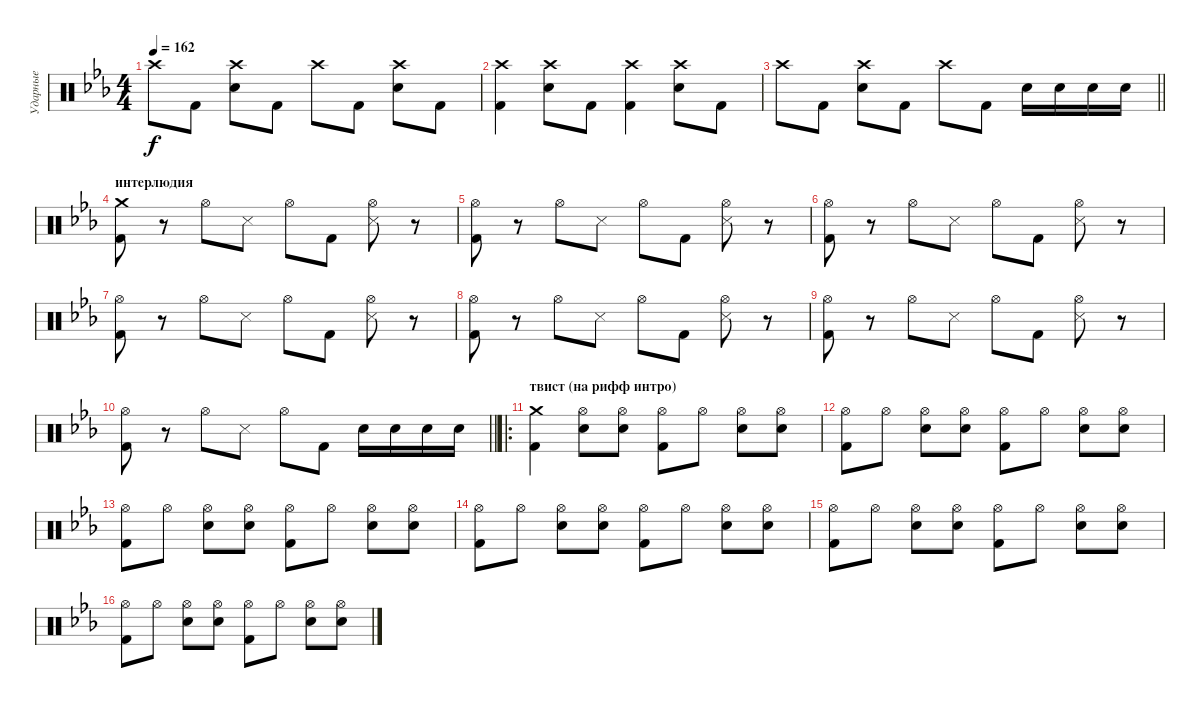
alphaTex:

\track ("Ударные" "Ударные") {instrument percussion}
\staff {score}
\articulation defaults
\ts (4 4)
\tempo 162
\clef neutral
\ks cminor "Crash high (hit)".8{dy f} "Kick (hit) 2".8
("Crash high (hit)" "Snare (hit) 2").8 "Kick (hit) 2".8 "Crash high (hit)".8 "Kick (hit) 2".8 ("Crash high (hit)" "Snare (hit) 2").8 "Kick (hit) 2".8 |
("Crash high (hit)" "Kick (hit) 2").4 ("Crash high (hit)" "Snare (hit) 2").8 "Kick (hit) 2".8 ("Crash high (hit)" "Kick (hit) 2").4 ("Crash high (hit)" "Snare (hit) 2").8 "Kick (hit) 2".8 |
\barLineRight lightlight "Crash high (hit)".8 "Kick (hit) 2".8
("Crash high (hit)" "Snare (hit) 2").8 "Kick (hit) 2".8 "Crash high (hit)".8 "Kick (hit) 2".8 "Snare (hit) 2".16 "Snare (hit) 2".16 "Snare (hit) 2".16 "Snare (hit) 2".16 |
\section ("" "интерлюдия")
("Crash medium (hit)" "Kick (hit) 2").8 r.8 "Hi-Hat (open)".8 "Snare (side stick) 3".8 "Hi-Hat (open)".8 "Kick (hit) 2".8 ("Hi-Hat (open)" "Snare (side stick) 3").8 r.8 |
("Hi-Hat (open)" "Kick (hit) 2").8 r.8 "Hi-Hat (open)".8 "Snare (side stick) 3".8 "Hi-Hat (open)".8 "Kick (hit) 2".8 ("Hi-Hat (open)" "Snare (side stick) 3").8 r.8 |
("Hi-Hat (open)" "Kick (hit) 2").8 r.8 "Hi-Hat (open)".8 "Snare (side stick) 3".8 "Hi-Hat (open)".8 "Kick (hit) 2".8 ("Hi-Hat (open)" "Snare (side stick) 3").8 r.8 |
("Hi-Hat (open)" "Kick (hit) 2").8 r.8 "Hi-Hat (open)".8 "Snare (side stick) 3".8 "Hi-Hat (open)".8 "Kick (hit) 2".8 ("Hi-Hat (open)" "Snare (side stick) 3").8 r.8 |
("Hi-Hat (open)" "Kick (hit) 2").8 r.8 "Hi-Hat (open)".8 "Snare (side stick) 3".8 "Hi-Hat (open)".8 "Kick (hit) 2".8 ("Hi-Hat (open)" "Snare (side stick) 3").8 r.8 |
("Hi-Hat (open)" "Kick (hit) 2").8 r.8 "Hi-Hat (open)".8 "Snare (side stick) 3".8 "Hi-Hat (open)".8 "Kick (hit) 2".8 ("Hi-Hat (open)" "Snare (side stick) 3").8 r.8 |
\barLineRight lightlight
("Hi-Hat (open)" "Kick (hit) 2").8 r.8 "Hi-Hat (open)".8 "Snare (side stick) 3".8 "Hi-Hat (open)".8 "Kick (hit) 2".8 "Snare (hit) 2".16 "Snare (hit) 2".16 "Snare (hit) 2".16 "Snare (hit) 2".16 |
\ro
\section ("" "твист (на рифф интро)")
("Crash medium (hit)" "Kick (hit) 2").4 ("Hi-Hat (open)" "Snare (hit) 2").8 ("Hi-Hat (open)" "Snare (hit) 2").8 ("Hi-Hat (open)" "Kick (hit) 2").8 "Hi-Hat (open)".8 ("Hi-Hat (open)" "Snare (hit) 2").8 ("Hi-Hat (open)" "Snare (hit) 2").8 |
("Hi-Hat (open)" "Kick (hit) 2").8 "Hi-Hat (open)".8 ("Hi-Hat (open)" "Snare (hit) 2").8 ("Hi-Hat (open)" "Snare (hit) 2").8 ("Hi-Hat (open)" "Kick (hit) 2").8 "Hi-Hat (open)".8 ("Hi-Hat (open)" "Snare (hit) 2").8 ("Hi-Hat (open)" "Snare (hit) 2").8 |
("Hi-Hat (open)" "Kick (hit) 2").8 "Hi-Hat (open)".8 ("Hi-Hat (open)" "Snare (hit) 2").8 ("Hi-Hat (open)" "Snare (hit) 2").8 ("Hi-Hat (open)" "Kick (hit) 2").8 "Hi-Hat (open)".8 ("Hi-Hat (open)" "Snare (hit) 2").8 ("Hi-Hat (open)" "Snare (hit) 2").8 |
("Hi-Hat (open)" "Kick (hit) 2").8 "Hi-Hat (open)".8 ("Hi-Hat (open)" "Snare (hit) 2").8 ("Hi-Hat (open)" "Snare (hit) 2").8 ("Hi-Hat (open)" "Kick (hit) 2").8 "Hi-Hat (open)".8 ("Hi-Hat (open)" "Snare (hit) 2").8 ("Hi-Hat (open)" "Snare (hit) 2").8 |
("Hi-Hat (open)" "Kick (hit) 2").8 "Hi-Hat (open)".8 ("Hi-Hat (open)" "Snare (hit) 2").8 ("Hi-Hat (open)" "Snare (hit) 2").8 ("Hi-Hat (open)" "Kick (hit) 2").8 "Hi-Hat (open)".8 ("Hi-Hat (open)" "Snare (hit) 2").8 ("Hi-Hat (open)" "Snare (hit) 2").8 |
("Hi-Hat (open)" "Kick (hit) 2").8 "Hi-Hat (open)".8 ("Hi-Hat (open)" "Snare (hit) 2").8 ("Hi-Hat (open)" "Snare (hit) 2").8 ("Hi-Hat (open)" "Kick (hit) 2").8 "Hi-Hat (open)".8 ("Hi-Hat (open)" "Snare (hit) 2").8 ("Hi-Hat (open)" "Snare (hit) 2").8
